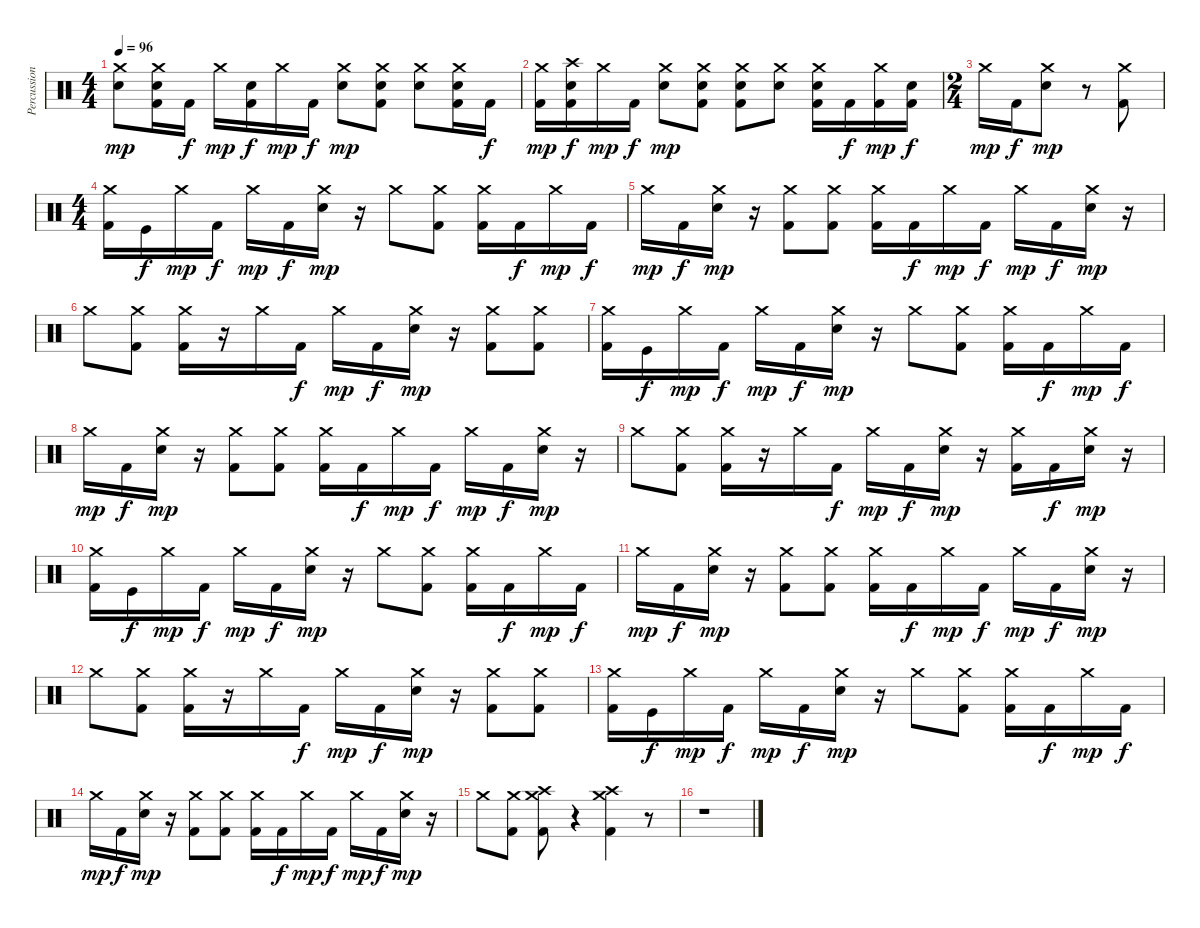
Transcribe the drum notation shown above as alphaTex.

\track ("Percussions" "Percussion") {instrument percussion}
\staff {score}
\articulation defaults
\ts (4 4)
\tempo 96
\clef neutral
\ks c
("Crash medium (hit)" "Snare (hit) 2").8{dy mp} ("Crash medium (hit)" "Snare (hit) 2" "Kick (hit) 2").16 "Kick (hit) 2".16{dy f} "Crash medium (hit)".16{dy mp} ("Snare (hit) 2" "Kick (hit) 2").16{dy f} "Crash medium (hit)".16{dy mp} "Kick (hit) 2".16{dy f} ("Crash medium (hit)" "Snare (hit) 2").8{dy mp} ("Crash medium (hit)" "Snare (hit) 2" "Kick (hit) 2").8 ("Crash medium (hit)" "Snare (hit) 2").8 ("Crash medium (hit)" "Snare (hit) 2" "Kick (hit) 2").16 "Kick (hit) 2".16{dy f} |
("Crash medium (hit)" "Kick (hit) 2").16{dy mp} ("Crash high (hit)" "Snare (hit) 2" "Kick (hit) 2").16{dy f} "Crash medium (hit)".16{dy mp} "Kick (hit) 2".16{dy f} ("Crash medium (hit)" "Snare (hit) 2").8{dy mp} ("Crash medium (hit)" "Snare (hit) 2" "Kick (hit) 2").8 ("Crash medium (hit)" "Snare (hit) 2" "Kick (hit) 2").8 ("Crash medium (hit)" "Snare (hit) 2").8 ("Crash medium (hit)" "Snare (hit) 2" "Kick (hit) 2").16 "Kick (hit) 2".16{dy f} ("Crash medium (hit)" "Kick (hit) 2").16{dy mp} ("Snare (hit) 2" "Kick (hit) 2").16{dy f} |
\ts (2 4)
"Crash medium (hit)".16{dy mp} "Kick (hit) 2".16{dy f} ("Crash medium (hit)" "Snare (hit) 2").8{dy mp} r.8 ("Crash medium (hit)" "Kick (hit) 2").8 |
\ts (4 4)
("Crash medium (hit)" "Kick (hit) 2").16 "Kick (hit)".16{dy f} "Crash medium (hit)".16{dy mp} "Kick (hit) 2".16{dy f} "Crash medium (hit)".16{dy mp} "Kick (hit) 2".16{dy f} ("Crash medium (hit)" "Snare (hit) 2").16{dy mp} r.16 "Crash medium (hit)".8 ("Crash medium (hit)" "Kick (hit) 2").8 ("Crash medium (hit)" "Kick (hit) 2").16 "Kick (hit) 2".16{dy f} "Crash medium (hit)".16{dy mp} "Kick (hit) 2".16{dy f} |
"Crash medium (hit)".16{dy mp} "Kick (hit) 2".16{dy f} ("Crash medium (hit)" "Snare (hit) 2").16{dy mp} r.16 ("Crash medium (hit)" "Kick (hit) 2").8 ("Crash medium (hit)" "Kick (hit) 2").8 ("Crash medium (hit)" "Kick (hit) 2").16 "Kick (hit) 2".16{dy f} "Crash medium (hit)".16{dy mp} "Kick (hit) 2".16{dy f} "Crash medium (hit)".16{dy mp} "Kick (hit) 2".16{dy f} ("Crash medium (hit)" "Snare (hit) 2").16{dy mp} r.16 |
"Crash medium (hit)".8 ("Crash medium (hit)" "Kick (hit) 2").8 ("Crash medium (hit)" "Kick (hit) 2").16 r.16 "Crash medium (hit)".16 "Kick (hit) 2".16{dy f} "Crash medium (hit)".16{dy mp} "Kick (hit) 2".16{dy f} ("Crash medium (hit)" "Snare (hit) 2").16{dy mp} r.16 ("Crash medium (hit)" "Kick (hit) 2").8 ("Crash medium (hit)" "Kick (hit) 2").8 |
("Crash medium (hit)" "Kick (hit) 2").16 "Kick (hit)".16{dy f} "Crash medium (hit)".16{dy mp} "Kick (hit) 2".16{dy f} "Crash medium (hit)".16{dy mp} "Kick (hit) 2".16{dy f} ("Crash medium (hit)" "Snare (hit) 2").16{dy mp} r.16 "Crash medium (hit)".8 ("Crash medium (hit)" "Kick (hit) 2").8 ("Crash medium (hit)" "Kick (hit) 2").16 "Kick (hit) 2".16{dy f} "Crash medium (hit)".16{dy mp} "Kick (hit) 2".16{dy f} |
"Crash medium (hit)".16{dy mp} "Kick (hit) 2".16{dy f} ("Crash medium (hit)" "Snare (hit) 2").16{dy mp} r.16 ("Crash medium (hit)" "Kick (hit) 2").8 ("Crash medium (hit)" "Kick (hit) 2").8 ("Crash medium (hit)" "Kick (hit) 2").16 "Kick (hit) 2".16{dy f} "Crash medium (hit)".16{dy mp} "Kick (hit) 2".16{dy f} "Crash medium (hit)".16{dy mp} "Kick (hit) 2".16{dy f} ("Crash medium (hit)" "Snare (hit) 2").16{dy mp} r.16 |
"Crash medium (hit)".8 ("Crash medium (hit)" "Kick (hit) 2").8 ("Crash medium (hit)" "Kick (hit) 2").16 r.16 "Crash medium (hit)".16 "Kick (hit) 2".16{dy f} "Crash medium (hit)".16{dy mp} "Kick (hit) 2".16{dy f} ("Crash medium (hit)" "Snare (hit) 2").16{dy mp} r.16 ("Crash medium (hit)" "Kick (hit) 2").16 "Kick (hit) 2".16{dy f} ("Crash medium (hit)" "Snare (hit) 2").16{dy mp} r.16 |
("Crash medium (hit)" "Kick (hit) 2").16 "Kick (hit)".16{dy f} "Crash medium (hit)".16{dy mp} "Kick (hit) 2".16{dy f} "Crash medium (hit)".16{dy mp} "Kick (hit) 2".16{dy f} ("Crash medium (hit)" "Snare (hit) 2").16{dy mp} r.16 "Crash medium (hit)".8 ("Crash medium (hit)" "Kick (hit) 2").8 ("Crash medium (hit)" "Kick (hit) 2").16 "Kick (hit) 2".16{dy f} "Crash medium (hit)".16{dy mp} "Kick (hit) 2".16{dy f} |
"Crash medium (hit)".16{dy mp} "Kick (hit) 2".16{dy f} ("Crash medium (hit)" "Snare (hit) 2").16{dy mp} r.16 ("Crash medium (hit)" "Kick (hit) 2").8 ("Crash medium (hit)" "Kick (hit) 2").8 ("Crash medium (hit)" "Kick (hit) 2").16 "Kick (hit) 2".16{dy f} "Crash medium (hit)".16{dy mp} "Kick (hit) 2".16{dy f} "Crash medium (hit)".16{dy mp} "Kick (hit) 2".16{dy f} ("Crash medium (hit)" "Snare (hit) 2").16{dy mp} r.16 |
"Crash medium (hit)".8 ("Crash medium (hit)" "Kick (hit) 2").8 ("Crash medium (hit)" "Kick (hit) 2").16 r.16 "Crash medium (hit)".16 "Kick (hit) 2".16{dy f} "Crash medium (hit)".16{dy mp} "Kick (hit) 2".16{dy f} ("Crash medium (hit)" "Snare (hit) 2").16{dy mp} r.16 ("Crash medium (hit)" "Kick (hit) 2").8 ("Crash medium (hit)" "Kick (hit) 2").8 |
("Crash medium (hit)" "Kick (hit) 2").16 "Kick (hit)".16{dy f} "Crash medium (hit)".16{dy mp} "Kick (hit) 2".16{dy f} "Crash medium (hit)".16{dy mp} "Kick (hit) 2".16{dy f} ("Crash medium (hit)" "Snare (hit) 2").16{dy mp} r.16 "Crash medium (hit)".8 ("Crash medium (hit)" "Kick (hit) 2").8 ("Crash medium (hit)" "Kick (hit) 2").16 "Kick (hit) 2".16{dy f} "Crash medium (hit)".16{dy mp} "Kick (hit) 2".16{dy f} |
"Crash medium (hit)".16{dy mp} "Kick (hit) 2".16{dy f} ("Crash medium (hit)" "Snare (hit) 2").16{dy mp} r.16 ("Crash medium (hit)" "Kick (hit) 2").8 ("Crash medium (hit)" "Kick (hit) 2").8 ("Crash medium (hit)" "Kick (hit) 2").16 "Kick (hit) 2".16{dy f} "Crash medium (hit)".16{dy mp} "Kick (hit) 2".16{dy f} "Crash medium (hit)".16{dy mp} "Kick (hit) 2".16{dy f} ("Crash medium (hit)" "Snare (hit) 2").16{dy mp} r.16 |
"Crash medium (hit)".8 ("Crash medium (hit)" "Kick (hit) 2").8 ("Crash medium (hit)" "Crash high (hit)" "Kick (hit) 2").8 r.4 ("Crash medium (hit)" "Crash high (hit)" "Kick (hit) 2").4 r.8 |
r.1
